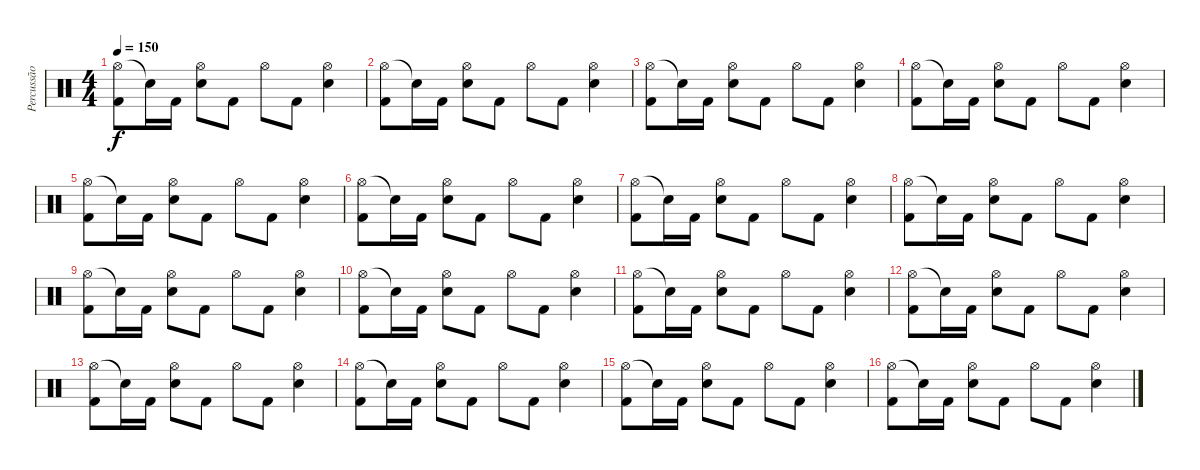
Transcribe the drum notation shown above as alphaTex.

\track ("Percussão" "Percussão") {instrument percussion}
\staff {score}
\articulation defaults
\ts (4 4)
\tempo 150
\clef neutral
\ks c
("Hi-Hat (open)" "Kick (hit) 2").8{dy f} "Snare (hit)"{t}.16 "Kick (hit) 2".16 ("Hi-Hat (open)" "Electric Snare (hit)").8 "Kick (hit) 2".8 "Hi-Hat (open)".8 "Kick (hit) 2".8 ("Hi-Hat (open)" "Electric Snare (hit)").4 |
("Hi-Hat (open)" "Kick (hit) 2").8 "Snare (hit)"{t}.16 "Kick (hit) 2".16 ("Hi-Hat (open)" "Electric Snare (hit)").8 "Kick (hit) 2".8 "Hi-Hat (open)".8 "Kick (hit) 2".8 ("Hi-Hat (open)" "Electric Snare (hit)").4 |
("Hi-Hat (open)" "Kick (hit) 2").8 "Snare (hit)"{t}.16 "Kick (hit) 2".16 ("Hi-Hat (open)" "Electric Snare (hit)").8 "Kick (hit) 2".8 "Hi-Hat (open)".8 "Kick (hit) 2".8 ("Hi-Hat (open)" "Electric Snare (hit)").4 |
("Hi-Hat (open)" "Kick (hit) 2").8 "Snare (hit)"{t}.16 "Kick (hit) 2".16 ("Hi-Hat (open)" "Electric Snare (hit)").8 "Kick (hit) 2".8 "Hi-Hat (open)".8 "Kick (hit) 2".8 ("Hi-Hat (open)" "Electric Snare (hit)").4 |
("Hi-Hat (open)" "Kick (hit) 2").8 "Snare (hit)"{t}.16 "Kick (hit) 2".16 ("Hi-Hat (open)" "Electric Snare (hit)").8 "Kick (hit) 2".8 "Hi-Hat (open)".8 "Kick (hit) 2".8 ("Hi-Hat (open)" "Electric Snare (hit)").4 |
("Hi-Hat (open)" "Kick (hit) 2").8 "Snare (hit)"{t}.16 "Kick (hit) 2".16 ("Hi-Hat (open)" "Electric Snare (hit)").8 "Kick (hit) 2".8 "Hi-Hat (open)".8 "Kick (hit) 2".8 ("Hi-Hat (open)" "Electric Snare (hit)").4 |
("Hi-Hat (open)" "Kick (hit) 2").8 "Snare (hit)"{t}.16 "Kick (hit) 2".16 ("Hi-Hat (open)" "Electric Snare (hit)").8 "Kick (hit) 2".8 "Hi-Hat (open)".8 "Kick (hit) 2".8 ("Hi-Hat (open)" "Electric Snare (hit)").4 |
("Hi-Hat (open)" "Kick (hit) 2").8 "Snare (hit)"{t}.16 "Kick (hit) 2".16 ("Hi-Hat (open)" "Electric Snare (hit)").8 "Kick (hit) 2".8 "Hi-Hat (open)".8 "Kick (hit) 2".8 ("Hi-Hat (open)" "Electric Snare (hit)").4 |
("Hi-Hat (open)" "Kick (hit) 2").8 "Snare (hit)"{t}.16 "Kick (hit) 2".16 ("Hi-Hat (open)" "Electric Snare (hit)").8 "Kick (hit) 2".8 "Hi-Hat (open)".8 "Kick (hit) 2".8 ("Hi-Hat (open)" "Electric Snare (hit)").4 |
("Hi-Hat (open)" "Kick (hit) 2").8 "Snare (hit)"{t}.16 "Kick (hit) 2".16 ("Hi-Hat (open)" "Electric Snare (hit)").8 "Kick (hit) 2".8 "Hi-Hat (open)".8 "Kick (hit) 2".8 ("Hi-Hat (open)" "Electric Snare (hit)").4 |
("Hi-Hat (open)" "Kick (hit) 2").8 "Snare (hit)"{t}.16 "Kick (hit) 2".16 ("Hi-Hat (open)" "Electric Snare (hit)").8 "Kick (hit) 2".8 "Hi-Hat (open)".8 "Kick (hit) 2".8 ("Hi-Hat (open)" "Electric Snare (hit)").4 |
("Hi-Hat (open)" "Kick (hit) 2").8 "Snare (hit)"{t}.16 "Kick (hit) 2".16 ("Hi-Hat (open)" "Electric Snare (hit)").8 "Kick (hit) 2".8 "Hi-Hat (open)".8 "Kick (hit) 2".8 ("Hi-Hat (open)" "Electric Snare (hit)").4 |
("Hi-Hat (open)" "Kick (hit) 2").8 "Snare (hit)"{t}.16 "Kick (hit) 2".16 ("Hi-Hat (open)" "Electric Snare (hit)").8 "Kick (hit) 2".8 "Hi-Hat (open)".8 "Kick (hit) 2".8 ("Hi-Hat (open)" "Electric Snare (hit)").4 |
("Hi-Hat (open)" "Kick (hit) 2").8 "Snare (hit)"{t}.16 "Kick (hit) 2".16 ("Hi-Hat (open)" "Electric Snare (hit)").8 "Kick (hit) 2".8 "Hi-Hat (open)".8 "Kick (hit) 2".8 ("Hi-Hat (open)" "Electric Snare (hit)").4 |
("Hi-Hat (open)" "Kick (hit) 2").8 "Snare (hit)"{t}.16 "Kick (hit) 2".16 ("Hi-Hat (open)" "Electric Snare (hit)").8 "Kick (hit) 2".8 "Hi-Hat (open)".8 "Kick (hit) 2".8 ("Hi-Hat (open)" "Electric Snare (hit)").4 |
("Hi-Hat (open)" "Kick (hit) 2").8 "Snare (hit)"{t}.16 "Kick (hit) 2".16 ("Hi-Hat (open)" "Electric Snare (hit)").8 "Kick (hit) 2".8 "Hi-Hat (open)".8 "Kick (hit) 2".8 ("Hi-Hat (open)" "Electric Snare (hit)").4
